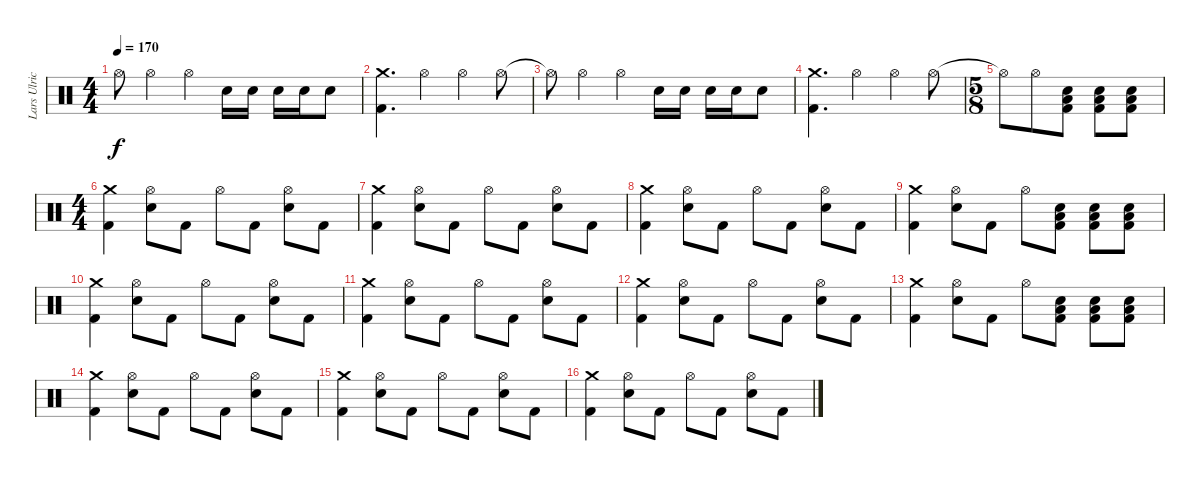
\track ("Lars Ulrich" "Lars Ulric") {instrument percussion}
\staff {score}
\articulation defaults
\ts (4 4)
\tempo 170
\clef neutral
\ks c "Hi-Hat (open)"{t}.8{dy f} "Hi-Hat (open)".4 "Hi-Hat (open)".4 "Electric Snare (hit)".16 "Electric Snare (hit)".16 "Electric Snare (hit)".16 "Electric Snare (hit)".16 "Electric Snare (hit)".8
|
("Crash medium (hit)" "Kick (hit) 2").4{d} "Hi-Hat (open)".4 "Hi-Hat (open)".4 "Hi-Hat (open)".8 |
"Hi-Hat (open)"{t}.8 "Hi-Hat (open)".4 "Hi-Hat (open)".4 "Electric Snare (hit)".16 "Electric Snare (hit)".16 "Electric Snare (hit)".16 "Electric Snare (hit)".16 "Electric Snare (hit)".8 |
("Crash medium (hit)" "Kick (hit) 2").4{d} "Hi-Hat (open)".4 "Hi-Hat (open)".4 "Hi-Hat (open)".8 |
\ts (5 8)
"Hi-Hat (open)"{t}.8 "Hi-Hat (open)".8 ("Electric Snare (hit)" "Low Floor Tom (hit)" "Kick (hit) 2").8 ("Electric Snare (hit)" "Low Floor Tom (hit)" "Kick (hit) 2").8 ("Electric Snare (hit)" "Low Floor Tom (hit)" "Kick (hit) 2").8 |
\ts (4 4)
("Crash medium (hit)" "Kick (hit) 2").4 ("Hi-Hat (open)" "Electric Snare (hit)").8 "Kick (hit) 2".8 "Hi-Hat (open)".8 "Kick (hit) 2".8 ("Hi-Hat (open)" "Electric Snare (hit)").8 "Kick (hit) 2".8 |
("Crash medium (hit)" "Kick (hit) 2").4 ("Hi-Hat (open)" "Electric Snare (hit)").8 "Kick (hit) 2".8 "Hi-Hat (open)".8 "Kick (hit) 2".8 ("Hi-Hat (open)" "Electric Snare (hit)").8 "Kick (hit) 2".8 |
("Crash medium (hit)" "Kick (hit) 2").4 ("Hi-Hat (open)" "Electric Snare (hit)").8 "Kick (hit) 2".8 "Hi-Hat (open)".8 "Kick (hit) 2".8 ("Hi-Hat (open)" "Electric Snare (hit)").8 "Kick (hit) 2".8 |
("Crash medium (hit)" "Kick (hit) 2").4 ("Hi-Hat (open)" "Electric Snare (hit)").8 "Kick (hit) 2".8 "Hi-Hat (open)".8 ("Electric Snare (hit)" "Low Floor Tom (hit)" "Kick (hit) 2").8 ("Electric Snare (hit)" "Low Floor Tom (hit)" "Kick (hit) 2").8 ("Electric Snare (hit)" "Low Floor Tom (hit)" "Kick (hit) 2").8 |
("Crash medium (hit)" "Kick (hit) 2").4 ("Hi-Hat (open)" "Electric Snare (hit)").8 "Kick (hit) 2".8 "Hi-Hat (open)".8 "Kick (hit) 2".8 ("Hi-Hat (open)" "Electric Snare (hit)").8 "Kick (hit) 2".8 |
("Crash medium (hit)" "Kick (hit) 2").4 ("Hi-Hat (open)" "Electric Snare (hit)").8 "Kick (hit) 2".8 "Hi-Hat (open)".8 "Kick (hit) 2".8 ("Hi-Hat (open)" "Electric Snare (hit)").8 "Kick (hit) 2".8 |
("Crash medium (hit)" "Kick (hit) 2").4 ("Hi-Hat (open)" "Electric Snare (hit)").8 "Kick (hit) 2".8 "Hi-Hat (open)".8 "Kick (hit) 2".8 ("Hi-Hat (open)" "Electric Snare (hit)").8 "Kick (hit) 2".8 |
("Crash medium (hit)" "Kick (hit) 2").4 ("Hi-Hat (open)" "Electric Snare (hit)").8 "Kick (hit) 2".8 "Hi-Hat (open)".8 ("Electric Snare (hit)" "Low Floor Tom (hit)" "Kick (hit) 2").8 ("Electric Snare (hit)" "Low Floor Tom (hit)" "Kick (hit) 2").8 ("Electric Snare (hit)" "Low Floor Tom (hit)" "Kick (hit) 2").8 |
("Crash medium (hit)" "Kick (hit) 2").4 ("Hi-Hat (open)" "Electric Snare (hit)").8 "Kick (hit) 2".8 "Hi-Hat (open)".8 "Kick (hit) 2".8 ("Hi-Hat (open)" "Electric Snare (hit)").8 "Kick (hit) 2".8 |
("Crash medium (hit)" "Kick (hit) 2").4 ("Hi-Hat (open)" "Electric Snare (hit)").8 "Kick (hit) 2".8 "Hi-Hat (open)".8 "Kick (hit) 2".8 ("Hi-Hat (open)" "Electric Snare (hit)").8 "Kick (hit) 2".8 |
("Crash medium (hit)" "Kick (hit) 2").4 ("Hi-Hat (open)" "Electric Snare (hit)").8 "Kick (hit) 2".8 "Hi-Hat (open)".8 "Kick (hit) 2".8 ("Hi-Hat (open)" "Electric Snare (hit)").8 "Kick (hit) 2".8
